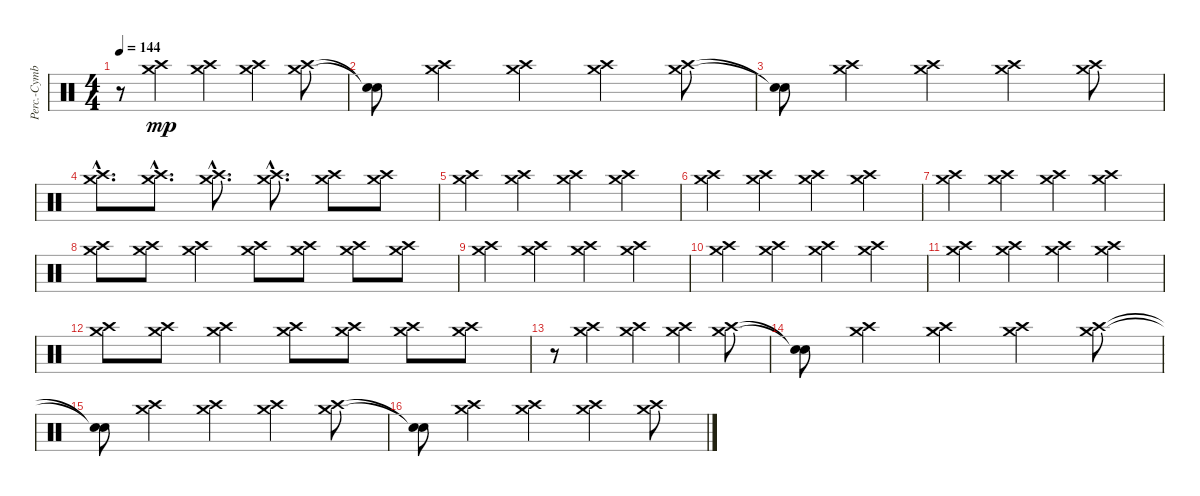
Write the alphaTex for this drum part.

\track ("Perc.-Cymbals" "Perc.-Cymb") {instrument percussion}
\staff {score}
\articulation defaults
\ts (4 4)
\tempo 144
\clef neutral
\ks c
r.8{dy mp} ("Crash high (hit)" "Crash medium (hit)").4 ("Crash high (hit)" "Crash medium (hit)").4 ("Crash high (hit)" "Crash medium (hit)").4 ("Crash high (hit)" "Crash medium (hit)").8 |
("Snare (hit)"{t} "Snare (hit)"{t}).8 ("Crash high (hit)" "Crash medium (hit)").4 ("Crash high (hit)" "Crash medium (hit)").4 ("Crash high (hit)" "Crash medium (hit)").4 ("Crash high (hit)" "Crash medium (hit)").8 |
("Snare (hit)"{t} "Snare (hit)"{t}).8 ("Crash high (hit)" "Crash medium (hit)").4 ("Crash high (hit)" "Crash medium (hit)").4 ("Crash high (hit)" "Crash medium (hit)").4 ("Crash high (hit)" "Crash medium (hit)").8 |
("Crash high (hit)"{hac} "Crash medium (hit)"{hac}).8{d} ("Crash high (hit)"{hac} "Crash medium (hit)"{hac}).8{d} ("Crash high (hit)"{hac} "Crash medium (hit)"{hac}).8{d} ("Crash high (hit)"{hac} "Crash medium (hit)"{hac}).8{d} ("Crash high (hit)" "Crash medium (hit)").8 ("Crash high (hit)" "Crash medium (hit)").8 |
("Crash high (hit)" "Crash medium (hit)").4 ("Crash high (hit)" "Crash medium (hit)").4 ("Crash high (hit)" "Crash medium (hit)").4 ("Crash high (hit)" "Crash medium (hit)").4 |
("Crash high (hit)" "Crash medium (hit)").4 ("Crash high (hit)" "Crash medium (hit)").4 ("Crash high (hit)" "Crash medium (hit)").4 ("Crash high (hit)" "Crash medium (hit)").4 |
("Crash high (hit)" "Crash medium (hit)").4 ("Crash high (hit)" "Crash medium (hit)").4 ("Crash high (hit)" "Crash medium (hit)").4 ("Crash high (hit)" "Crash medium (hit)").4 |
("Crash high (hit)" "Crash medium (hit)").8 ("Crash high (hit)" "Crash medium (hit)").8 ("Crash high (hit)" "Crash medium (hit)").4 ("Crash high (hit)" "Crash medium (hit)").8 ("Crash high (hit)" "Crash medium (hit)").8 ("Crash high (hit)" "Crash medium (hit)").8 ("Crash high (hit)" "Crash medium (hit)").8 |
("Crash high (hit)" "Crash medium (hit)").4 ("Crash high (hit)" "Crash medium (hit)").4 ("Crash high (hit)" "Crash medium (hit)").4 ("Crash high (hit)" "Crash medium (hit)").4 |
("Crash high (hit)" "Crash medium (hit)").4 ("Crash high (hit)" "Crash medium (hit)").4 ("Crash high (hit)" "Crash medium (hit)").4 ("Crash high (hit)" "Crash medium (hit)").4 |
("Crash high (hit)" "Crash medium (hit)").4 ("Crash high (hit)" "Crash medium (hit)").4 ("Crash high (hit)" "Crash medium (hit)").4 ("Crash high (hit)" "Crash medium (hit)").4 |
("Crash high (hit)" "Crash medium (hit)").8 ("Crash high (hit)" "Crash medium (hit)").8 ("Crash high (hit)" "Crash medium (hit)").4 ("Crash high (hit)" "Crash medium (hit)").8 ("Crash high (hit)" "Crash medium (hit)").8 ("Crash high (hit)" "Crash medium (hit)").8 ("Crash high (hit)" "Crash medium (hit)").8 |
r.8 ("Crash high (hit)" "Crash medium (hit)").4 ("Crash high (hit)" "Crash medium (hit)").4 ("Crash high (hit)" "Crash medium (hit)").4 ("Crash high (hit)" "Crash medium (hit)").8 |
("Snare (hit)"{t} "Snare (hit)"{t}).8 ("Crash high (hit)" "Crash medium (hit)").4 ("Crash high (hit)" "Crash medium (hit)").4 ("Crash high (hit)" "Crash medium (hit)").4 ("Crash high (hit)" "Crash medium (hit)").8 |
("Snare (hit)"{t} "Snare (hit)"{t}).8 ("Crash high (hit)" "Crash medium (hit)").4 ("Crash high (hit)" "Crash medium (hit)").4 ("Crash high (hit)" "Crash medium (hit)").4 ("Crash high (hit)" "Crash medium (hit)").8 |
("Snare (hit)"{t} "Snare (hit)"{t}).8 ("Crash high (hit)" "Crash medium (hit)").4 ("Crash high (hit)" "Crash medium (hit)").4 ("Crash high (hit)" "Crash medium (hit)").4 ("Crash high (hit)" "Crash medium (hit)").8
